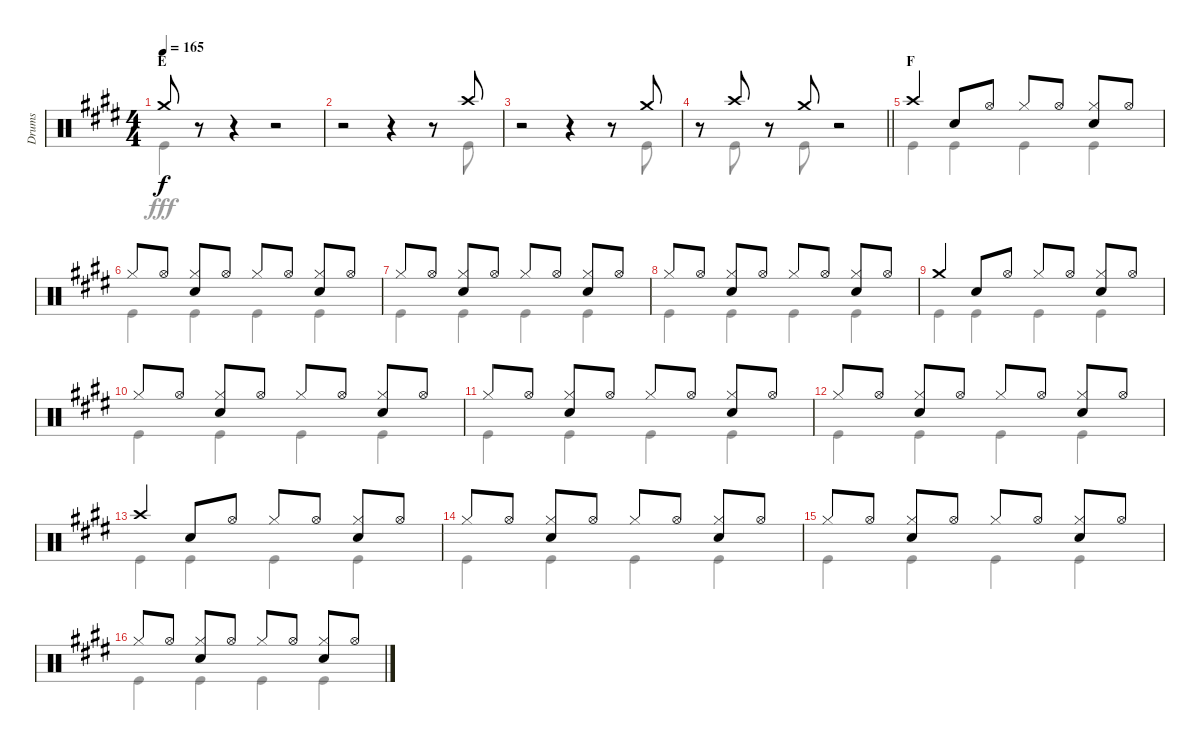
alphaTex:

\track ("Drums" "Drums") {instrument percussion}
\staff {score}
\articulation defaults
\voice
\ts (4 4)
\section ("" "E")
\tempo 165
\clef neutral
\ks e "Crash medium (hit)".8{dy f}
r.8 r.4 r.2 |
r.2 r.4 r.8 "Crash high (hit)".8 |
r.2 r.4 r.8 "Crash medium (hit)".8 |
\barLineRight lightlight
r.8 "Crash high (hit)".8 r.8 "Crash medium (hit)".8 r.2 |
\section ("" "F")
"Crash high (hit)".4 "Snare (hit) 2".8 "Hi-Hat (open)".8 "Hi-Hat (closed)".8 "Hi-Hat (open)".8 ("Hi-Hat (closed)" "Snare (hit) 2").8 "Hi-Hat (open)".8 |
"Hi-Hat (closed)".8 "Hi-Hat (open)".8 ("Hi-Hat (closed)" "Snare (hit) 2").8 "Hi-Hat (open)".8 "Hi-Hat (closed)".8 "Hi-Hat (open)".8 ("Hi-Hat (closed)" "Snare (hit) 2").8 "Hi-Hat (open)".8 |
"Hi-Hat (closed)".8 "Hi-Hat (open)".8 ("Hi-Hat (closed)" "Snare (hit) 2").8 "Hi-Hat (open)".8 "Hi-Hat (closed)".8 "Hi-Hat (open)".8 ("Hi-Hat (closed)" "Snare (hit) 2").8 "Hi-Hat (open)".8 |
"Hi-Hat (closed)".8 "Hi-Hat (open)".8 ("Hi-Hat (closed)" "Snare (hit) 2").8 "Hi-Hat (open)".8 "Hi-Hat (closed)".8 "Hi-Hat (open)".8 ("Hi-Hat (closed)" "Snare (hit) 2").8 "Hi-Hat (open)".8 |
"Crash medium (hit)".4 "Snare (hit) 2".8 "Hi-Hat (open)".8 "Hi-Hat (closed)".8 "Hi-Hat (open)".8 ("Hi-Hat (closed)" "Snare (hit) 2").8 "Hi-Hat (open)".8 |
"Hi-Hat (closed)".8 "Hi-Hat (open)".8 ("Hi-Hat (closed)" "Snare (hit) 2").8 "Hi-Hat (open)".8 "Hi-Hat (closed)".8 "Hi-Hat (open)".8 ("Hi-Hat (closed)" "Snare (hit) 2").8 "Hi-Hat (open)".8 |
"Hi-Hat (closed)".8 "Hi-Hat (open)".8 ("Hi-Hat (closed)" "Snare (hit) 2").8 "Hi-Hat (open)".8 "Hi-Hat (closed)".8 "Hi-Hat (open)".8 ("Hi-Hat (closed)" "Snare (hit) 2").8 "Hi-Hat (open)".8 |
"Hi-Hat (closed)".8 "Hi-Hat (open)".8 ("Hi-Hat (closed)" "Snare (hit) 2").8 "Hi-Hat (open)".8 "Hi-Hat (closed)".8 "Hi-Hat (open)".8 ("Hi-Hat (closed)" "Snare (hit) 2").8 "Hi-Hat (open)".8 |
"Crash high (hit)".4 "Snare (hit) 2".8 "Hi-Hat (open)".8 "Hi-Hat (closed)".8 "Hi-Hat (open)".8 ("Hi-Hat (closed)" "Snare (hit) 2").8 "Hi-Hat (open)".8 |
"Hi-Hat (closed)".8 "Hi-Hat (open)".8 ("Hi-Hat (closed)" "Snare (hit) 2").8 "Hi-Hat (open)".8 "Hi-Hat (closed)".8 "Hi-Hat (open)".8 ("Hi-Hat (closed)" "Snare (hit) 2").8 "Hi-Hat (open)".8 |
"Hi-Hat (closed)".8 "Hi-Hat (open)".8 ("Hi-Hat (closed)" "Snare (hit) 2").8 "Hi-Hat (open)".8 "Hi-Hat (closed)".8 "Hi-Hat (open)".8 ("Hi-Hat (closed)" "Snare (hit) 2").8 "Hi-Hat (open)".8 |
"Hi-Hat (closed)".8 "Hi-Hat (open)".8 ("Hi-Hat (closed)" "Snare (hit) 2").8 "Hi-Hat (open)".8 "Hi-Hat (closed)".8 "Hi-Hat (open)".8 ("Hi-Hat (closed)" "Snare (hit) 2").8 "Hi-Hat (open)".8
\voice
\clef neutral
\ottava regular
\simile none
\ks e "Kick (hit)".4{dy fff}
r.4 r.2 |
r.2 r.4 r.8 "Kick (hit)".8 |
r.2 r.4 r.8 "Kick (hit)".8 |
\barLineRight lightlight
r.8 "Kick (hit)".8 r.8 "Kick (hit)".8 r.2 |
"Kick (hit)".4 "Kick (hit)".4 "Kick (hit)".4 "Kick (hit)".4 |
"Kick (hit)".4 "Kick (hit)".4 "Kick (hit)".4 "Kick (hit)".4 |
"Kick (hit)".4 "Kick (hit)".4 "Kick (hit)".4 "Kick (hit)".4 |
"Kick (hit)".4 "Kick (hit)".4 "Kick (hit)".4 "Kick (hit)".4 |
"Kick (hit)".4 "Kick (hit)".4 "Kick (hit)".4 "Kick (hit)".4 |
"Kick (hit)".4 "Kick (hit)".4 "Kick (hit)".4 "Kick (hit)".4 |
"Kick (hit)".4 "Kick (hit)".4 "Kick (hit)".4 "Kick (hit)".4 |
"Kick (hit)".4 "Kick (hit)".4 "Kick (hit)".4 "Kick (hit)".4 |
"Kick (hit)".4 "Kick (hit)".4 "Kick (hit)".4 "Kick (hit)".4 |
"Kick (hit)".4 "Kick (hit)".4 "Kick (hit)".4 "Kick (hit)".4 |
"Kick (hit)".4 "Kick (hit)".4 "Kick (hit)".4 "Kick (hit)".4 |
"Kick (hit)".4 "Kick (hit)".4 "Kick (hit)".4 "Kick (hit)".4
